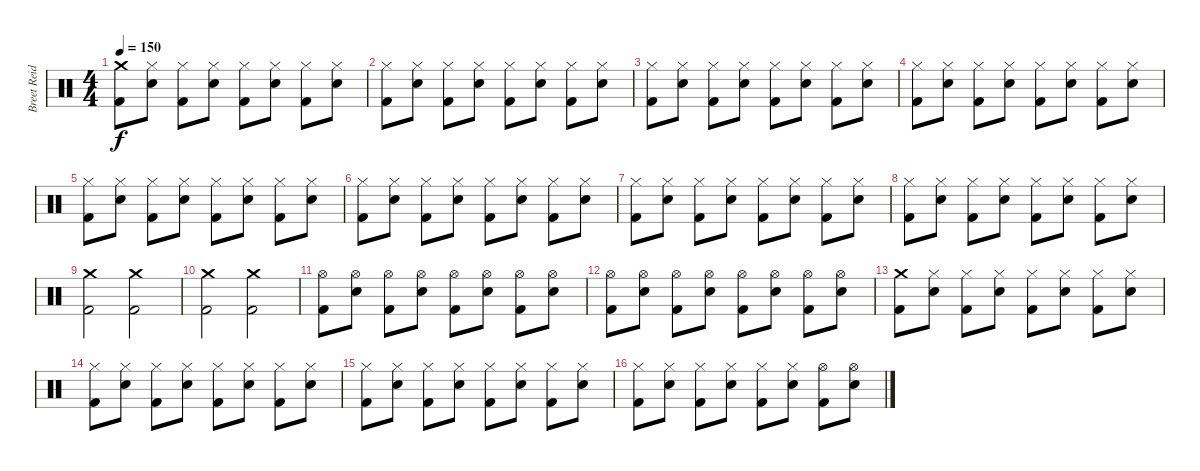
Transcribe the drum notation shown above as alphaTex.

\track ("Breet Reid" "Breet Reid") {instrument percussion}
\staff {score}
\articulation defaults
\ts (4 4)
\tempo 150
\clef neutral
\ks c
("Crash medium (hit)" "Kick (hit) 2").8{dy f} ("Hi-Hat (closed)" "Snare (hit) 2").8 ("Hi-Hat (closed)" "Kick (hit) 2").8 ("Hi-Hat (closed)" "Snare (hit) 2").8 ("Hi-Hat (closed)" "Kick (hit) 2").8 ("Hi-Hat (closed)" "Snare (hit) 2").8 ("Hi-Hat (closed)" "Kick (hit) 2").8 ("Hi-Hat (closed)" "Snare (hit) 2").8 |
("Hi-Hat (closed)" "Kick (hit) 2").8 ("Hi-Hat (closed)" "Snare (hit) 2").8 ("Hi-Hat (closed)" "Kick (hit) 2").8 ("Hi-Hat (closed)" "Snare (hit) 2").8 ("Hi-Hat (closed)" "Kick (hit) 2").8 ("Hi-Hat (closed)" "Snare (hit) 2").8 ("Hi-Hat (closed)" "Kick (hit) 2").8 ("Hi-Hat (closed)" "Snare (hit) 2").8 |
("Hi-Hat (closed)" "Kick (hit) 2").8 ("Hi-Hat (closed)" "Snare (hit) 2").8 ("Hi-Hat (closed)" "Kick (hit) 2").8 ("Hi-Hat (closed)" "Snare (hit) 2").8 ("Hi-Hat (closed)" "Kick (hit) 2").8 ("Hi-Hat (closed)" "Snare (hit) 2").8 ("Hi-Hat (closed)" "Kick (hit) 2").8 ("Hi-Hat (closed)" "Snare (hit) 2").8 |
("Hi-Hat (closed)" "Kick (hit) 2").8 ("Hi-Hat (closed)" "Snare (hit) 2").8 ("Hi-Hat (closed)" "Kick (hit) 2").8 ("Hi-Hat (closed)" "Snare (hit) 2").8 ("Hi-Hat (closed)" "Kick (hit) 2").8 ("Hi-Hat (closed)" "Snare (hit) 2").8 ("Hi-Hat (closed)" "Kick (hit) 2").8 ("Hi-Hat (closed)" "Snare (hit) 2").8 |
("Hi-Hat (closed)" "Kick (hit) 2").8 ("Hi-Hat (closed)" "Snare (hit) 2").8 ("Hi-Hat (closed)" "Kick (hit) 2").8 ("Hi-Hat (closed)" "Snare (hit) 2").8 ("Hi-Hat (closed)" "Kick (hit) 2").8 ("Hi-Hat (closed)" "Snare (hit) 2").8 ("Hi-Hat (closed)" "Kick (hit) 2").8 ("Hi-Hat (closed)" "Snare (hit) 2").8 |
("Hi-Hat (closed)" "Kick (hit) 2").8 ("Hi-Hat (closed)" "Snare (hit) 2").8 ("Hi-Hat (closed)" "Kick (hit) 2").8 ("Hi-Hat (closed)" "Snare (hit) 2").8 ("Hi-Hat (closed)" "Kick (hit) 2").8 ("Hi-Hat (closed)" "Snare (hit) 2").8 ("Hi-Hat (closed)" "Kick (hit) 2").8 ("Hi-Hat (closed)" "Snare (hit) 2").8 |
("Hi-Hat (closed)" "Kick (hit) 2").8 ("Hi-Hat (closed)" "Snare (hit) 2").8 ("Hi-Hat (closed)" "Kick (hit) 2").8 ("Hi-Hat (closed)" "Snare (hit) 2").8 ("Hi-Hat (closed)" "Kick (hit) 2").8 ("Hi-Hat (closed)" "Snare (hit) 2").8 ("Hi-Hat (closed)" "Kick (hit) 2").8 ("Hi-Hat (closed)" "Snare (hit) 2").8 |
("Hi-Hat (closed)" "Kick (hit) 2").8 ("Hi-Hat (closed)" "Snare (hit) 2").8 ("Hi-Hat (closed)" "Kick (hit) 2").8 ("Hi-Hat (closed)" "Snare (hit) 2").8 ("Hi-Hat (closed)" "Kick (hit) 2").8 ("Hi-Hat (closed)" "Snare (hit) 2").8 ("Hi-Hat (closed)" "Kick (hit) 2").8 ("Hi-Hat (closed)" "Snare (hit) 2").8 |
("Crash medium (hit)" "Kick (hit) 2").2 ("Crash medium (hit)" "Kick (hit) 2").2 |
("Crash medium (hit)" "Kick (hit) 2").2 ("Crash medium (hit)" "Kick (hit) 2").2 |
("Hi-Hat (open)" "Kick (hit) 2").8 ("Hi-Hat (open)" "Snare (hit) 2").8 ("Hi-Hat (open)" "Kick (hit) 2").8 ("Hi-Hat (open)" "Snare (hit) 2").8 ("Hi-Hat (open)" "Kick (hit) 2").8 ("Hi-Hat (open)" "Snare (hit) 2").8 ("Hi-Hat (open)" "Kick (hit) 2").8 ("Hi-Hat (open)" "Snare (hit) 2").8 |
("Hi-Hat (open)" "Kick (hit) 2").8 ("Hi-Hat (open)" "Snare (hit) 2").8 ("Hi-Hat (open)" "Kick (hit) 2").8 ("Hi-Hat (open)" "Snare (hit) 2").8 ("Hi-Hat (open)" "Kick (hit) 2").8 ("Hi-Hat (open)" "Snare (hit) 2").8 ("Hi-Hat (open)" "Kick (hit) 2").8 ("Hi-Hat (open)" "Snare (hit) 2").8 |
("Crash medium (hit)" "Kick (hit) 2").8 ("Hi-Hat (closed)" "Snare (hit) 2").8 ("Hi-Hat (closed)" "Kick (hit) 2").8 ("Hi-Hat (closed)" "Snare (hit) 2").8 ("Hi-Hat (closed)" "Kick (hit) 2").8 ("Hi-Hat (closed)" "Snare (hit) 2").8 ("Hi-Hat (closed)" "Kick (hit) 2").8 ("Hi-Hat (closed)" "Snare (hit) 2").8 |
("Hi-Hat (closed)" "Kick (hit) 2").8 ("Hi-Hat (closed)" "Snare (hit) 2").8 ("Hi-Hat (closed)" "Kick (hit) 2").8 ("Hi-Hat (closed)" "Snare (hit) 2").8 ("Hi-Hat (closed)" "Kick (hit) 2").8 ("Hi-Hat (closed)" "Snare (hit) 2").8 ("Hi-Hat (closed)" "Kick (hit) 2").8 ("Hi-Hat (closed)" "Snare (hit) 2").8 |
("Hi-Hat (closed)" "Kick (hit) 2").8 ("Hi-Hat (closed)" "Snare (hit) 2").8 ("Hi-Hat (closed)" "Kick (hit) 2").8 ("Hi-Hat (closed)" "Snare (hit) 2").8 ("Hi-Hat (closed)" "Kick (hit) 2").8 ("Hi-Hat (closed)" "Snare (hit) 2").8 ("Hi-Hat (closed)" "Kick (hit) 2").8 ("Hi-Hat (closed)" "Snare (hit) 2").8 |
("Hi-Hat (closed)" "Kick (hit) 2").8 ("Hi-Hat (closed)" "Snare (hit) 2").8 ("Hi-Hat (closed)" "Kick (hit) 2").8 ("Hi-Hat (closed)" "Snare (hit) 2").8 ("Hi-Hat (closed)" "Kick (hit) 2").8 ("Hi-Hat (closed)" "Snare (hit) 2").8 ("Hi-Hat (open)" "Kick (hit) 2").8 ("Hi-Hat (open)" "Snare (hit) 2").8
